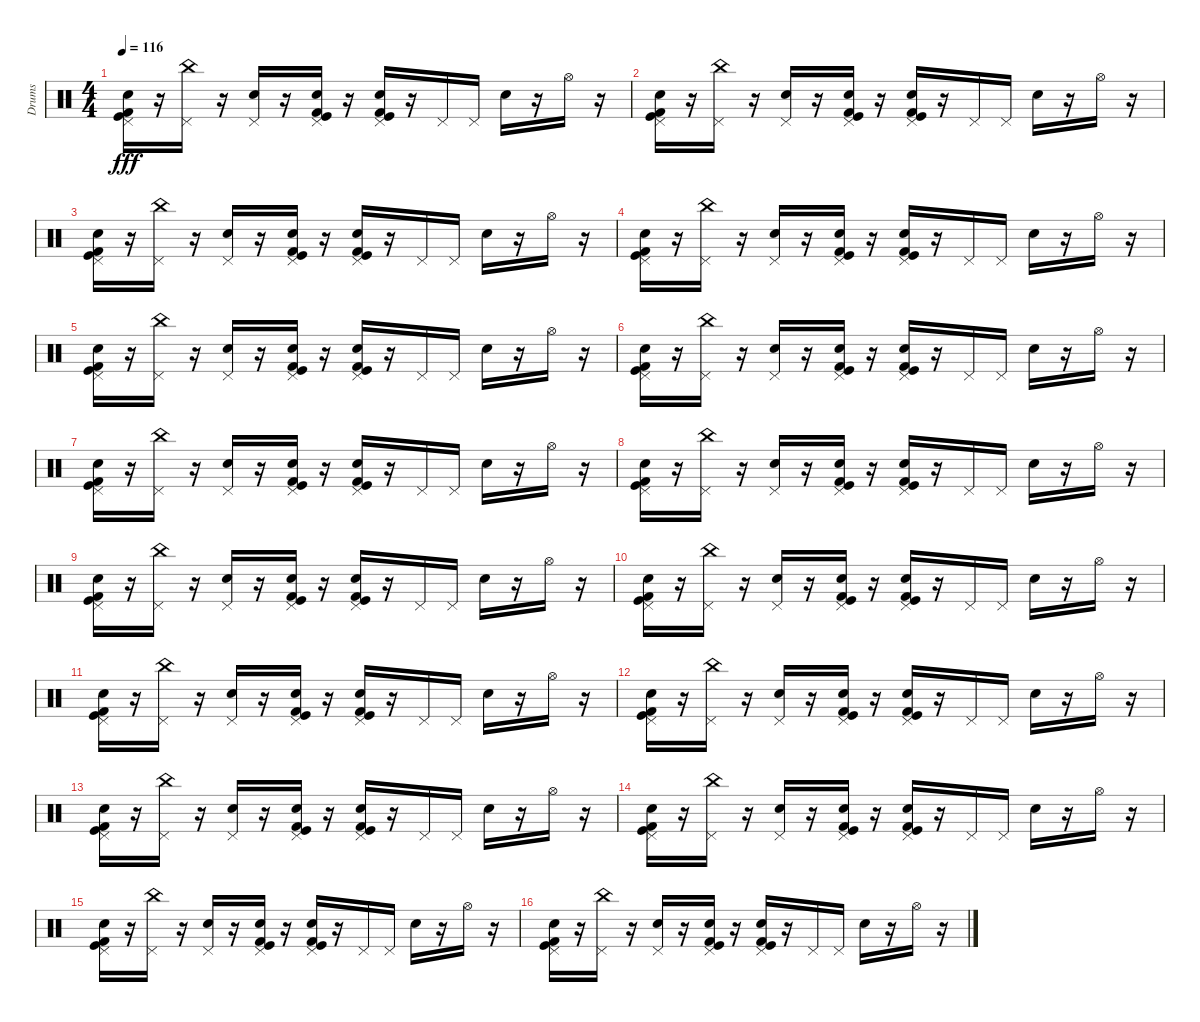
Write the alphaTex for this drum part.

\track ("Drums" "Drums") {instrument percussion}
\staff {score}
\articulation defaults
\ts (4 4)
\tempo 116
\clef neutral
\ks c
("Snare (hit) 2" "Pedal Hi-Hat (hit)" "Kick (hit) 2" "Kick (hit)").16{dy fff} r.16 ("China (hit)" "Pedal Hi-Hat (hit)").16 r.16 ("Pedal Hi-Hat (hit)" "Electric Snare (hit)").16 r.16 ("Snare (hit) 2" "Pedal Hi-Hat (hit)" "Kick (hit) 2" "Kick (hit)").16 r.16 ("Snare (hit) 2" "Pedal Hi-Hat (hit)" "Kick (hit) 2" "Kick (hit)").16 r.16 "Pedal Hi-Hat (hit)".16 "Pedal Hi-Hat (hit)".16 "Electric Snare (hit)".16 r.16 "Hi-Hat (open)".16 r.16 |
("Snare (hit) 2" "Pedal Hi-Hat (hit)" "Kick (hit) 2" "Kick (hit)").16 r.16 ("China (hit)" "Pedal Hi-Hat (hit)").16 r.16 ("Pedal Hi-Hat (hit)" "Electric Snare (hit)").16 r.16 ("Snare (hit) 2" "Pedal Hi-Hat (hit)" "Kick (hit) 2" "Kick (hit)").16 r.16 ("Snare (hit) 2" "Pedal Hi-Hat (hit)" "Kick (hit) 2" "Kick (hit)").16 r.16 "Pedal Hi-Hat (hit)".16 "Pedal Hi-Hat (hit)".16 "Electric Snare (hit)".16 r.16 "Hi-Hat (open)".16 r.16 |
("Snare (hit) 2" "Pedal Hi-Hat (hit)" "Kick (hit) 2" "Kick (hit)").16 r.16 ("China (hit)" "Pedal Hi-Hat (hit)").16 r.16 ("Pedal Hi-Hat (hit)" "Electric Snare (hit)").16 r.16 ("Snare (hit) 2" "Pedal Hi-Hat (hit)" "Kick (hit) 2" "Kick (hit)").16 r.16 ("Snare (hit) 2" "Pedal Hi-Hat (hit)" "Kick (hit) 2" "Kick (hit)").16 r.16 "Pedal Hi-Hat (hit)".16 "Pedal Hi-Hat (hit)".16 "Electric Snare (hit)".16 r.16 "Hi-Hat (open)".16 r.16 |
("Snare (hit) 2" "Pedal Hi-Hat (hit)" "Kick (hit) 2" "Kick (hit)").16 r.16 ("China (hit)" "Pedal Hi-Hat (hit)").16 r.16 ("Pedal Hi-Hat (hit)" "Electric Snare (hit)").16 r.16 ("Snare (hit) 2" "Pedal Hi-Hat (hit)" "Kick (hit) 2" "Kick (hit)").16 r.16 ("Snare (hit) 2" "Pedal Hi-Hat (hit)" "Kick (hit) 2" "Kick (hit)").16 r.16 "Pedal Hi-Hat (hit)".16 "Pedal Hi-Hat (hit)".16 "Electric Snare (hit)".16 r.16 "Hi-Hat (open)".16 r.16 |
("Snare (hit) 2" "Pedal Hi-Hat (hit)" "Kick (hit) 2" "Kick (hit)").16 r.16 ("China (hit)" "Pedal Hi-Hat (hit)").16 r.16 ("Pedal Hi-Hat (hit)" "Electric Snare (hit)").16 r.16 ("Snare (hit) 2" "Pedal Hi-Hat (hit)" "Kick (hit) 2" "Kick (hit)").16 r.16 ("Snare (hit) 2" "Pedal Hi-Hat (hit)" "Kick (hit) 2" "Kick (hit)").16 r.16 "Pedal Hi-Hat (hit)".16 "Pedal Hi-Hat (hit)".16 "Electric Snare (hit)".16 r.16 "Hi-Hat (open)".16 r.16 |
("Snare (hit) 2" "Pedal Hi-Hat (hit)" "Kick (hit) 2" "Kick (hit)").16 r.16 ("China (hit)" "Pedal Hi-Hat (hit)").16 r.16 ("Pedal Hi-Hat (hit)" "Electric Snare (hit)").16 r.16 ("Snare (hit) 2" "Pedal Hi-Hat (hit)" "Kick (hit) 2" "Kick (hit)").16 r.16 ("Snare (hit) 2" "Pedal Hi-Hat (hit)" "Kick (hit) 2" "Kick (hit)").16 r.16 "Pedal Hi-Hat (hit)".16 "Pedal Hi-Hat (hit)".16 "Electric Snare (hit)".16 r.16 "Hi-Hat (open)".16 r.16 |
("Snare (hit) 2" "Pedal Hi-Hat (hit)" "Kick (hit) 2" "Kick (hit)").16 r.16 ("China (hit)" "Pedal Hi-Hat (hit)").16 r.16 ("Pedal Hi-Hat (hit)" "Electric Snare (hit)").16 r.16 ("Snare (hit) 2" "Pedal Hi-Hat (hit)" "Kick (hit) 2" "Kick (hit)").16 r.16 ("Snare (hit) 2" "Pedal Hi-Hat (hit)" "Kick (hit) 2" "Kick (hit)").16 r.16 "Pedal Hi-Hat (hit)".16 "Pedal Hi-Hat (hit)".16 "Electric Snare (hit)".16 r.16 "Hi-Hat (open)".16 r.16 |
("Snare (hit) 2" "Pedal Hi-Hat (hit)" "Kick (hit) 2" "Kick (hit)").16 r.16 ("China (hit)" "Pedal Hi-Hat (hit)").16 r.16 ("Pedal Hi-Hat (hit)" "Electric Snare (hit)").16 r.16 ("Snare (hit) 2" "Pedal Hi-Hat (hit)" "Kick (hit) 2" "Kick (hit)").16 r.16 ("Snare (hit) 2" "Pedal Hi-Hat (hit)" "Kick (hit) 2" "Kick (hit)").16 r.16 "Pedal Hi-Hat (hit)".16 "Pedal Hi-Hat (hit)".16 "Electric Snare (hit)".16 r.16 "Hi-Hat (open)".16 r.16 |
("Snare (hit) 2" "Pedal Hi-Hat (hit)" "Kick (hit) 2" "Kick (hit)").16 r.16 ("China (hit)" "Pedal Hi-Hat (hit)").16 r.16 ("Pedal Hi-Hat (hit)" "Electric Snare (hit)").16 r.16 ("Snare (hit) 2" "Pedal Hi-Hat (hit)" "Kick (hit) 2" "Kick (hit)").16 r.16 ("Snare (hit) 2" "Pedal Hi-Hat (hit)" "Kick (hit) 2" "Kick (hit)").16 r.16 "Pedal Hi-Hat (hit)".16 "Pedal Hi-Hat (hit)".16 "Electric Snare (hit)".16 r.16 "Hi-Hat (open)".16 r.16 |
("Snare (hit) 2" "Pedal Hi-Hat (hit)" "Kick (hit) 2" "Kick (hit)").16 r.16 ("China (hit)" "Pedal Hi-Hat (hit)").16 r.16 ("Pedal Hi-Hat (hit)" "Electric Snare (hit)").16 r.16 ("Snare (hit) 2" "Pedal Hi-Hat (hit)" "Kick (hit) 2" "Kick (hit)").16 r.16 ("Snare (hit) 2" "Pedal Hi-Hat (hit)" "Kick (hit) 2" "Kick (hit)").16 r.16 "Pedal Hi-Hat (hit)".16 "Pedal Hi-Hat (hit)".16 "Electric Snare (hit)".16 r.16 "Hi-Hat (open)".16 r.16 |
("Snare (hit) 2" "Pedal Hi-Hat (hit)" "Kick (hit) 2" "Kick (hit)").16 r.16 ("China (hit)" "Pedal Hi-Hat (hit)").16 r.16 ("Pedal Hi-Hat (hit)" "Electric Snare (hit)").16 r.16 ("Snare (hit) 2" "Pedal Hi-Hat (hit)" "Kick (hit) 2" "Kick (hit)").16 r.16 ("Snare (hit) 2" "Pedal Hi-Hat (hit)" "Kick (hit) 2" "Kick (hit)").16 r.16 "Pedal Hi-Hat (hit)".16 "Pedal Hi-Hat (hit)".16 "Electric Snare (hit)".16 r.16 "Hi-Hat (open)".16 r.16 |
("Snare (hit) 2" "Pedal Hi-Hat (hit)" "Kick (hit) 2" "Kick (hit)").16 r.16 ("China (hit)" "Pedal Hi-Hat (hit)").16 r.16 ("Pedal Hi-Hat (hit)" "Electric Snare (hit)").16 r.16 ("Snare (hit) 2" "Pedal Hi-Hat (hit)" "Kick (hit) 2" "Kick (hit)").16 r.16 ("Snare (hit) 2" "Pedal Hi-Hat (hit)" "Kick (hit) 2" "Kick (hit)").16 r.16 "Pedal Hi-Hat (hit)".16 "Pedal Hi-Hat (hit)".16 "Electric Snare (hit)".16 r.16 "Hi-Hat (open)".16 r.16 |
("Snare (hit) 2" "Pedal Hi-Hat (hit)" "Kick (hit) 2" "Kick (hit)").16 r.16 ("China (hit)" "Pedal Hi-Hat (hit)").16 r.16 ("Pedal Hi-Hat (hit)" "Electric Snare (hit)").16 r.16 ("Snare (hit) 2" "Pedal Hi-Hat (hit)" "Kick (hit) 2" "Kick (hit)").16 r.16 ("Snare (hit) 2" "Pedal Hi-Hat (hit)" "Kick (hit) 2" "Kick (hit)").16 r.16 "Pedal Hi-Hat (hit)".16 "Pedal Hi-Hat (hit)".16 "Electric Snare (hit)".16 r.16 "Hi-Hat (open)".16 r.16 |
("Snare (hit) 2" "Pedal Hi-Hat (hit)" "Kick (hit) 2" "Kick (hit)").16 r.16 ("China (hit)" "Pedal Hi-Hat (hit)").16 r.16 ("Pedal Hi-Hat (hit)" "Electric Snare (hit)").16 r.16 ("Snare (hit) 2" "Pedal Hi-Hat (hit)" "Kick (hit) 2" "Kick (hit)").16 r.16 ("Snare (hit) 2" "Pedal Hi-Hat (hit)" "Kick (hit) 2" "Kick (hit)").16 r.16 "Pedal Hi-Hat (hit)".16 "Pedal Hi-Hat (hit)".16 "Electric Snare (hit)".16 r.16 "Hi-Hat (open)".16 r.16 |
("Snare (hit) 2" "Pedal Hi-Hat (hit)" "Kick (hit) 2" "Kick (hit)").16 r.16 ("China (hit)" "Pedal Hi-Hat (hit)").16 r.16 ("Pedal Hi-Hat (hit)" "Electric Snare (hit)").16 r.16 ("Snare (hit) 2" "Pedal Hi-Hat (hit)" "Kick (hit) 2" "Kick (hit)").16 r.16 ("Snare (hit) 2" "Pedal Hi-Hat (hit)" "Kick (hit) 2" "Kick (hit)").16 r.16 "Pedal Hi-Hat (hit)".16 "Pedal Hi-Hat (hit)".16 "Electric Snare (hit)".16 r.16 "Hi-Hat (open)".16 r.16 |
("Snare (hit) 2" "Pedal Hi-Hat (hit)" "Kick (hit) 2" "Kick (hit)").16 r.16 ("China (hit)" "Pedal Hi-Hat (hit)").16 r.16 ("Pedal Hi-Hat (hit)" "Electric Snare (hit)").16 r.16 ("Snare (hit) 2" "Pedal Hi-Hat (hit)" "Kick (hit) 2" "Kick (hit)").16 r.16 ("Snare (hit) 2" "Pedal Hi-Hat (hit)" "Kick (hit) 2" "Kick (hit)").16 r.16 "Pedal Hi-Hat (hit)".16 "Pedal Hi-Hat (hit)".16 "Electric Snare (hit)".16 r.16 "Hi-Hat (open)".16 r.16
